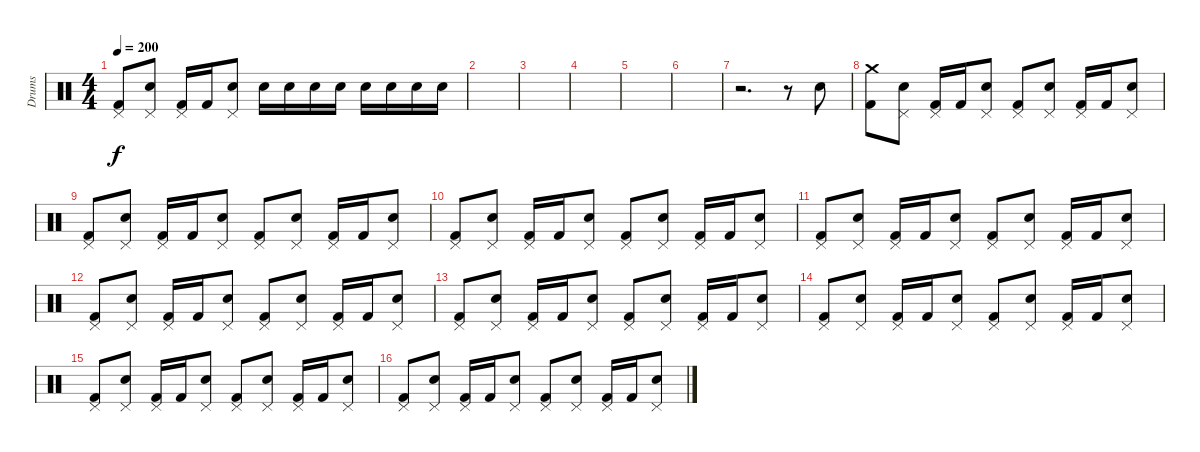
\track ("Drums" "Drums") {instrument percussion}
\staff {score}
\articulation defaults
\ts (4 4)
\tempo 200
\clef neutral
\ks c
("Pedal Hi-Hat (hit)" "Kick (hit) 2").8{dy f} ("Pedal Hi-Hat (hit)" "Snare (hit) 2").8 ("Pedal Hi-Hat (hit)" "Kick (hit) 2").16 "Kick (hit) 2".16 ("Pedal Hi-Hat (hit)" "Snare (hit) 2").8 "Snare (hit) 2".16 "Snare (hit) 2".16 "Snare (hit) 2".16 "Snare (hit) 2".16 "Snare (hit) 2".16 "Snare (hit) 2".16 "Snare (hit) 2".16 "Snare (hit) 2".16 |
|
|
|
|
|
r.2{d} r.8 "Snare (hit) 2".8 |
("Crash medium (hit)" "Kick (hit) 2").8 ("Pedal Hi-Hat (hit)" "Snare (hit) 2").8 ("Pedal Hi-Hat (hit)" "Kick (hit) 2").16 "Kick (hit) 2".16 ("Pedal Hi-Hat (hit)" "Snare (hit) 2").8 ("Pedal Hi-Hat (hit)" "Kick (hit) 2").8 ("Pedal Hi-Hat (hit)" "Snare (hit) 2").8 ("Pedal Hi-Hat (hit)" "Kick (hit) 2").16 "Kick (hit) 2".16 ("Pedal Hi-Hat (hit)" "Snare (hit) 2").8 |
("Pedal Hi-Hat (hit)" "Kick (hit) 2").8 ("Pedal Hi-Hat (hit)" "Snare (hit) 2").8 ("Pedal Hi-Hat (hit)" "Kick (hit) 2").16 "Kick (hit) 2".16 ("Pedal Hi-Hat (hit)" "Snare (hit) 2").8 ("Pedal Hi-Hat (hit)" "Kick (hit) 2").8 ("Pedal Hi-Hat (hit)" "Snare (hit) 2").8 ("Pedal Hi-Hat (hit)" "Kick (hit) 2").16 "Kick (hit) 2".16 ("Pedal Hi-Hat (hit)" "Snare (hit) 2").8 |
("Pedal Hi-Hat (hit)" "Kick (hit) 2").8 ("Pedal Hi-Hat (hit)" "Snare (hit) 2").8 ("Pedal Hi-Hat (hit)" "Kick (hit) 2").16 "Kick (hit) 2".16 ("Pedal Hi-Hat (hit)" "Snare (hit) 2").8 ("Pedal Hi-Hat (hit)" "Kick (hit) 2").8 ("Pedal Hi-Hat (hit)" "Snare (hit) 2").8 ("Pedal Hi-Hat (hit)" "Kick (hit) 2").16 "Kick (hit) 2".16 ("Pedal Hi-Hat (hit)" "Snare (hit) 2").8 |
("Pedal Hi-Hat (hit)" "Kick (hit) 2").8 ("Pedal Hi-Hat (hit)" "Snare (hit) 2").8 ("Pedal Hi-Hat (hit)" "Kick (hit) 2").16 "Kick (hit) 2".16 ("Pedal Hi-Hat (hit)" "Snare (hit) 2").8 ("Pedal Hi-Hat (hit)" "Kick (hit) 2").8 ("Pedal Hi-Hat (hit)" "Snare (hit) 2").8 ("Pedal Hi-Hat (hit)" "Kick (hit) 2").16 "Kick (hit) 2".16 ("Pedal Hi-Hat (hit)" "Snare (hit) 2").8 |
("Pedal Hi-Hat (hit)" "Kick (hit) 2").8 ("Pedal Hi-Hat (hit)" "Snare (hit) 2").8 ("Pedal Hi-Hat (hit)" "Kick (hit) 2").16 "Kick (hit) 2".16 ("Pedal Hi-Hat (hit)" "Snare (hit) 2").8 ("Pedal Hi-Hat (hit)" "Kick (hit) 2").8 ("Pedal Hi-Hat (hit)" "Snare (hit) 2").8 ("Pedal Hi-Hat (hit)" "Kick (hit) 2").16 "Kick (hit) 2".16 ("Pedal Hi-Hat (hit)" "Snare (hit) 2").8 |
("Pedal Hi-Hat (hit)" "Kick (hit) 2").8 ("Pedal Hi-Hat (hit)" "Snare (hit) 2").8 ("Pedal Hi-Hat (hit)" "Kick (hit) 2").16 "Kick (hit) 2".16 ("Pedal Hi-Hat (hit)" "Snare (hit) 2").8 ("Pedal Hi-Hat (hit)" "Kick (hit) 2").8 ("Pedal Hi-Hat (hit)" "Snare (hit) 2").8 ("Pedal Hi-Hat (hit)" "Kick (hit) 2").16 "Kick (hit) 2".16 ("Pedal Hi-Hat (hit)" "Snare (hit) 2").8 |
("Pedal Hi-Hat (hit)" "Kick (hit) 2").8 ("Pedal Hi-Hat (hit)" "Snare (hit) 2").8 ("Pedal Hi-Hat (hit)" "Kick (hit) 2").16 "Kick (hit) 2".16 ("Pedal Hi-Hat (hit)" "Snare (hit) 2").8 ("Pedal Hi-Hat (hit)" "Kick (hit) 2").8 ("Pedal Hi-Hat (hit)" "Snare (hit) 2").8 ("Pedal Hi-Hat (hit)" "Kick (hit) 2").16 "Kick (hit) 2".16 ("Pedal Hi-Hat (hit)" "Snare (hit) 2").8 |
("Pedal Hi-Hat (hit)" "Kick (hit) 2").8 ("Pedal Hi-Hat (hit)" "Snare (hit) 2").8 ("Pedal Hi-Hat (hit)" "Kick (hit) 2").16 "Kick (hit) 2".16 ("Pedal Hi-Hat (hit)" "Snare (hit) 2").8 ("Pedal Hi-Hat (hit)" "Kick (hit) 2").8 ("Pedal Hi-Hat (hit)" "Snare (hit) 2").8 ("Pedal Hi-Hat (hit)" "Kick (hit) 2").16 "Kick (hit) 2".16 ("Pedal Hi-Hat (hit)" "Snare (hit) 2").8 |
("Pedal Hi-Hat (hit)" "Kick (hit) 2").8 ("Pedal Hi-Hat (hit)" "Snare (hit) 2").8 ("Pedal Hi-Hat (hit)" "Kick (hit) 2").16 "Kick (hit) 2".16 ("Pedal Hi-Hat (hit)" "Snare (hit) 2").8 ("Pedal Hi-Hat (hit)" "Kick (hit) 2").8 ("Pedal Hi-Hat (hit)" "Snare (hit) 2").8 ("Pedal Hi-Hat (hit)" "Kick (hit) 2").16 "Kick (hit) 2".16 ("Pedal Hi-Hat (hit)" "Snare (hit) 2").8
